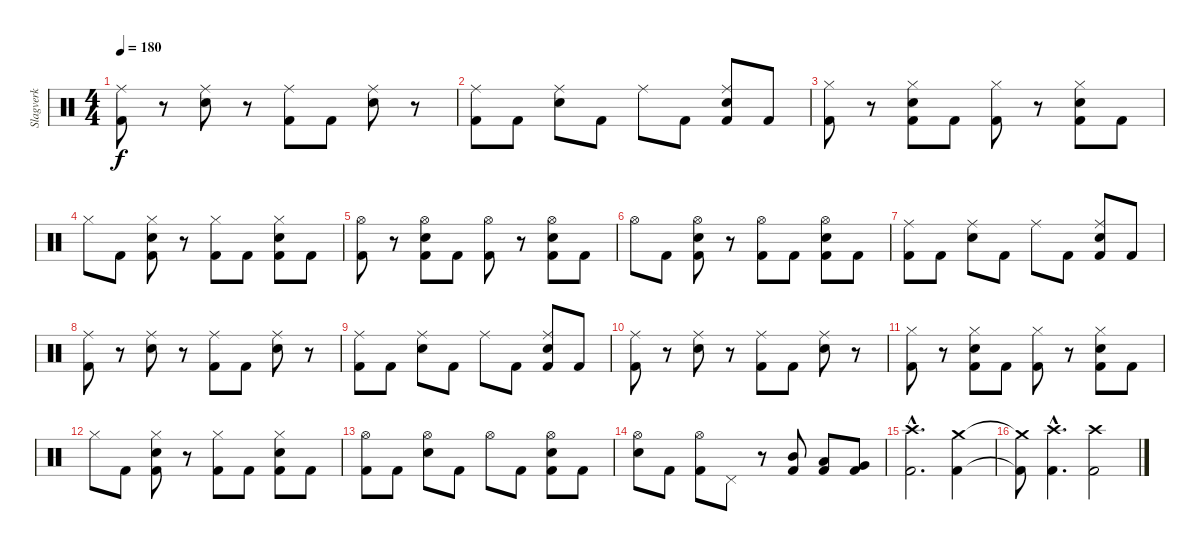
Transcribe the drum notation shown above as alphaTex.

\track ("Slagverk" "Slagverk") {instrument percussion}
\staff {score}
\articulation defaults
\ts (4 4)
\tempo 180
\clef neutral
\ks c
("Kick (hit) 2" "Ride (middle)").8{dy f} r.8 ("Snare (hit) 2" "Ride (middle)").8 r.8 ("Kick (hit) 2" "Ride (middle)").8 "Kick (hit) 2".8 ("Snare (hit) 2" "Ride (middle)").8 r.8 |
("Kick (hit) 2" "Ride (middle)").8 "Kick (hit) 2".8 ("Snare (hit) 2" "Ride (middle)").8 "Kick (hit) 2".8 "Ride (middle)".8 "Kick (hit) 2".8 ("Kick (hit) 2" "Snare (hit) 2" "Ride (middle)").8 "Kick (hit) 2".8 |
("Kick (hit) 2" "Hi-Hat (closed)").8 r.8 ("Kick (hit) 2" "Snare (hit) 2" "Hi-Hat (closed)").8 "Kick (hit) 2".8 ("Kick (hit) 2" "Hi-Hat (closed)").8 r.8 ("Kick (hit) 2" "Snare (hit) 2" "Hi-Hat (closed)").8 "Kick (hit) 2".8 |
"Hi-Hat (closed)".8 "Kick (hit) 2".8 ("Kick (hit) 2" "Snare (hit) 2" "Hi-Hat (closed)").8 r.8 ("Kick (hit) 2" "Hi-Hat (closed)").8 "Kick (hit) 2".8 ("Kick (hit) 2" "Snare (hit) 2" "Hi-Hat (closed)").8 "Kick (hit) 2".8 |
("Kick (hit) 2" "Hi-Hat (open)").8 r.8 ("Kick (hit) 2" "Snare (hit) 2" "Hi-Hat (open)").8 "Kick (hit) 2".8 ("Kick (hit) 2" "Hi-Hat (open)").8 r.8 ("Kick (hit) 2" "Snare (hit) 2" "Hi-Hat (open)").8 "Kick (hit) 2".8 |
"Hi-Hat (open)".8 "Kick (hit) 2".8 ("Kick (hit) 2" "Snare (hit) 2" "Hi-Hat (open)").8 r.8 ("Kick (hit) 2" "Hi-Hat (open)").8 "Kick (hit) 2".8 ("Kick (hit) 2" "Snare (hit) 2" "Hi-Hat (open)").8 "Kick (hit) 2".8 |
("Kick (hit) 2" "Ride (middle)").8 "Kick (hit) 2".8 ("Snare (hit) 2" "Ride (middle)").8 "Kick (hit) 2".8 "Ride (middle)".8 "Kick (hit) 2".8 ("Kick (hit) 2" "Snare (hit) 2" "Ride (middle)").8 "Kick (hit) 2".8 |
("Kick (hit) 2" "Ride (middle)").8 r.8 ("Snare (hit) 2" "Ride (middle)").8 r.8 ("Kick (hit) 2" "Ride (middle)").8 "Kick (hit) 2".8 ("Snare (hit) 2" "Ride (middle)").8 r.8 |
("Kick (hit) 2" "Ride (middle)").8 "Kick (hit) 2".8 ("Snare (hit) 2" "Ride (middle)").8 "Kick (hit) 2".8 "Ride (middle)".8 "Kick (hit) 2".8 ("Kick (hit) 2" "Snare (hit) 2" "Ride (middle)").8 "Kick (hit) 2".8 |
("Kick (hit) 2" "Ride (middle)").8 r.8 ("Snare (hit) 2" "Ride (middle)").8 r.8 ("Kick (hit) 2" "Ride (middle)").8 "Kick (hit) 2".8 ("Snare (hit) 2" "Ride (middle)").8 r.8 |
("Kick (hit) 2" "Hi-Hat (closed)").8 r.8 ("Kick (hit) 2" "Snare (hit) 2" "Hi-Hat (closed)").8 "Kick (hit) 2".8 ("Kick (hit) 2" "Hi-Hat (closed)").8 r.8 ("Kick (hit) 2" "Snare (hit) 2" "Hi-Hat (closed)").8 "Kick (hit) 2".8 |
"Hi-Hat (closed)".8 "Kick (hit) 2".8 ("Kick (hit) 2" "Snare (hit) 2" "Hi-Hat (closed)").8 r.8 ("Kick (hit) 2" "Hi-Hat (closed)").8 "Kick (hit) 2".8 ("Kick (hit) 2" "Snare (hit) 2" "Hi-Hat (closed)").8 "Kick (hit) 2".8 |
("Kick (hit) 2" "Hi-Hat (open)").8 "Kick (hit) 2".8 ("Snare (hit) 2" "Hi-Hat (open)").8 "Kick (hit) 2".8 "Hi-Hat (open)".8 "Kick (hit) 2".8 ("Kick (hit) 2" "Snare (hit) 2" "Hi-Hat (open)").8 "Kick (hit) 2".8 |
("Snare (hit) 2" "Hi-Hat (open)").8 "Kick (hit) 2".8 ("Kick (hit) 2" "Hi-Hat (open)").8 "Pedal Hi-Hat (hit)".8 r.8 ("Kick (hit) 2" "Mid Tom (hit)").8 ("Kick (hit) 2" "Low Tom (hit)").8 ("Kick (hit) 2" "Very Low Tom (hit)").8 |
("Kick (hit) 2"{hac} "Crash high (hit)"{hac}).2{d} ("Kick (hit) 2" "Crash medium (hit)").4 |
("Kick (hit) 2"{t} "Crash medium (hit)"{t}).8 ("Kick (hit) 2"{hac} "Crash high (hit)"{hac}).4{d} ("Kick (hit) 2" "Crash high (hit)").2
